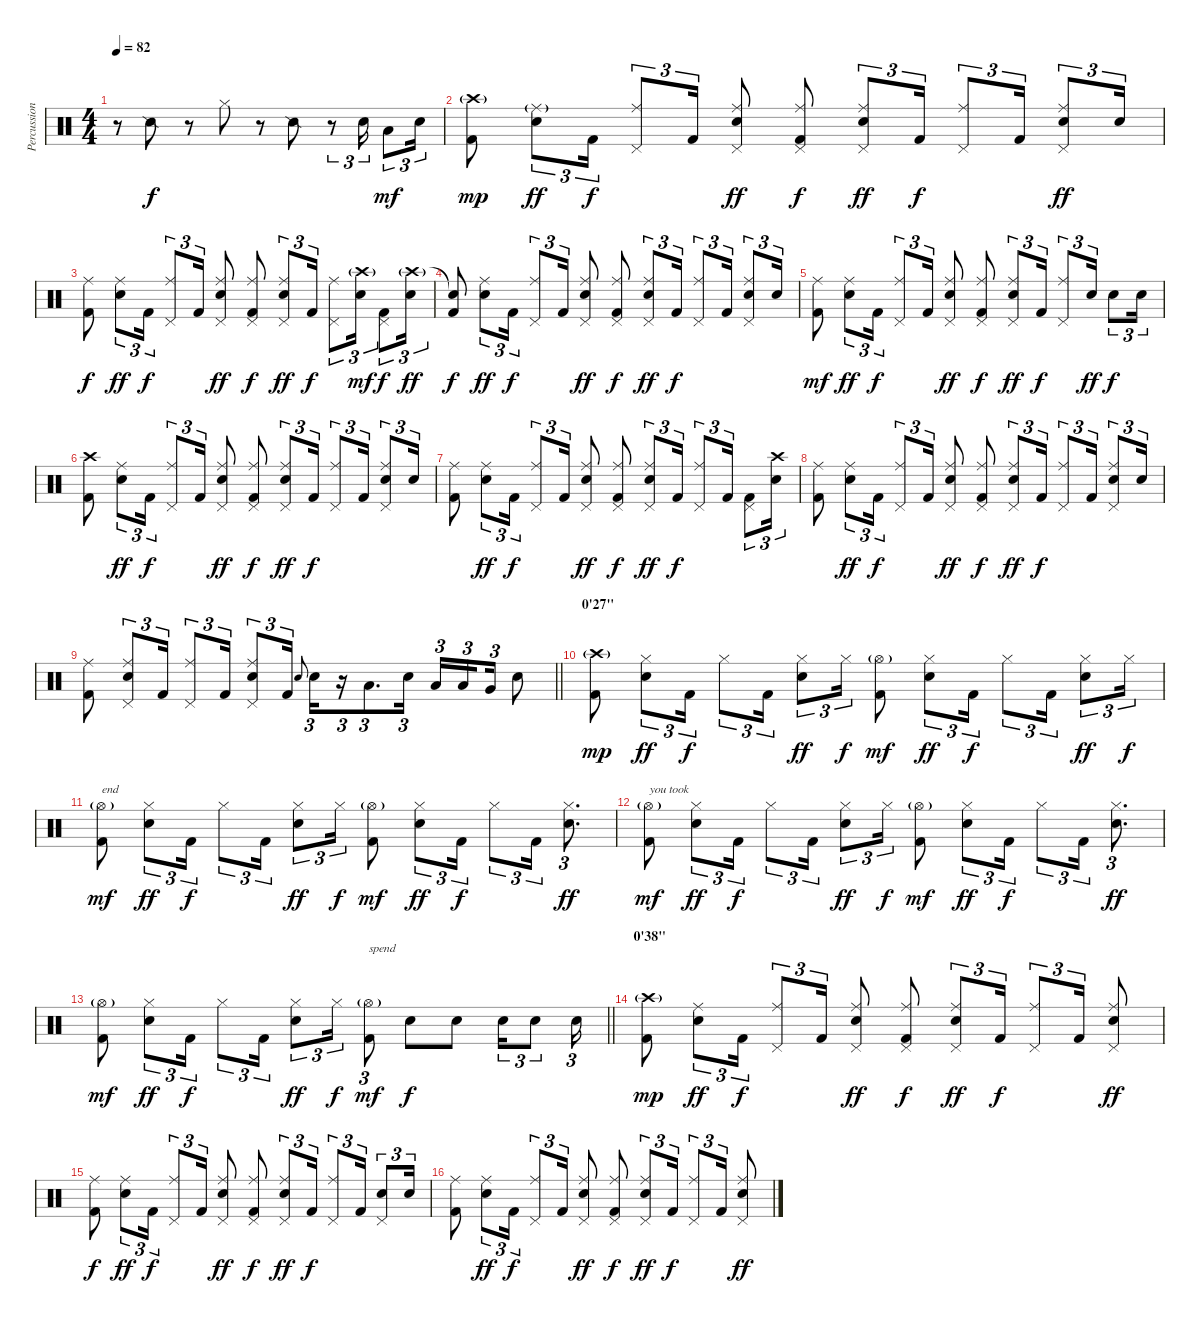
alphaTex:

\track ("Percussions" "Percussion") {instrument percussion}
\staff {score}
\articulation defaults
\ts (4 4)
\tempo 82
\clef neutral
\ks c
r.8{dy f} "Snare (side stick) 2".8 r.8 "Hi-Hat (closed)".8 r.8 "Snare (side stick) 2".8 r.8{tu (3 2)} "Electric Snare (hit)".16{tu (3 2)} "Low Tom (hit)".8{tu (3 2) dy mf} "Electric Snare (hit)".16{tu (3 2)} |
("Crash high (hit)"{g} "Kick (hit) 2").8{dy mp} ("Ride (middle)"{g} "Electric Snare (hit)").8{tu (3 2) dy ff} "Kick (hit) 2".16{tu (3 2) dy f} ("Ride (middle)" "Pedal Hi-Hat (hit)").8{tu (3 2)} "Kick (hit) 2".16{tu (3 2)} ("Ride (middle)" "Electric Snare (hit)" "Pedal Hi-Hat (hit)").8{dy ff} ("Ride (middle)" "Kick (hit) 2" "Pedal Hi-Hat (hit)").8{dy f} ("Ride (middle)" "Electric Snare (hit)" "Pedal Hi-Hat (hit)").8{tu (3 2) dy ff} "Kick (hit) 2".16{tu (3 2) dy f} ("Ride (middle)" "Pedal Hi-Hat (hit)").8{tu (3 2)} "Kick (hit) 2".16{tu (3 2)} ("Ride (middle)" "Electric Snare (hit)" "Pedal Hi-Hat (hit)").8{tu (3 2) dy ff} "Electric Snare (hit)".16{tu (3 2)} |
("Ride (middle)" "Kick (hit) 2").8{dy f} ("Ride (middle)" "Electric Snare (hit)").8{tu (3 2) dy ff} "Kick (hit) 2".16{tu (3 2) dy f} ("Ride (middle)" "Pedal Hi-Hat (hit)").8{tu (3 2)} "Kick (hit) 2".16{tu (3 2)} ("Ride (middle)" "Electric Snare (hit)" "Pedal Hi-Hat (hit)").8{dy ff} ("Ride (middle)" "Kick (hit) 2" "Pedal Hi-Hat (hit)").8{dy f} ("Ride (middle)" "Electric Snare (hit)" "Pedal Hi-Hat (hit)").8{tu (3 2) dy ff} "Kick (hit) 2".16{tu (3 2) dy f} ("Ride (middle)" "Pedal Hi-Hat (hit)").8{tu (3 2)} ("Crash high (hit)"{g} "Electric Snare (hit)").16{tu (3 2) dy mf} ("Kick (hit) 2" "Pedal Hi-Hat (hit)").8{tu (3 2) dy f} ("Crash high (hit)"{g} "Electric Snare (hit)").16{tu (3 2) dy ff} |
("Snare (hit)"{t} "Kick (hit) 2").8{dy f} ("Ride (middle)" "Electric Snare (hit)").8{tu (3 2) dy ff} "Kick (hit) 2".16{tu (3 2) dy f} ("Ride (middle)" "Pedal Hi-Hat (hit)").8{tu (3 2)} "Kick (hit) 2".16{tu (3 2)} ("Ride (middle)" "Electric Snare (hit)" "Pedal Hi-Hat (hit)").8{dy ff} ("Ride (middle)" "Kick (hit) 2" "Pedal Hi-Hat (hit)").8{dy f} ("Ride (middle)" "Electric Snare (hit)" "Pedal Hi-Hat (hit)").8{tu (3 2) dy ff} "Kick (hit) 2".16{tu (3 2) dy f} ("Ride (middle)" "Pedal Hi-Hat (hit)").8{tu (3 2)} "Kick (hit) 2".16{tu (3 2)} ("Ride (middle)" "Electric Snare (hit)" "Pedal Hi-Hat (hit)").8{tu (3 2)} "Electric Snare (hit)".16{tu (3 2)} |
("Ride (middle)" "Kick (hit) 2").8{dy mf} ("Ride (middle)" "Electric Snare (hit)").8{tu (3 2) dy ff} "Kick (hit) 2".16{tu (3 2) dy f} ("Ride (middle)" "Pedal Hi-Hat (hit)").8{tu (3 2)} "Kick (hit) 2".16{tu (3 2)} ("Ride (middle)" "Electric Snare (hit)" "Pedal Hi-Hat (hit)").8{dy ff} ("Ride (middle)" "Kick (hit) 2" "Pedal Hi-Hat (hit)").8{dy f} ("Ride (middle)" "Electric Snare (hit)" "Pedal Hi-Hat (hit)").8{tu (3 2) dy ff} "Kick (hit) 2".16{tu (3 2) dy f} ("Ride (middle)" "Pedal Hi-Hat (hit)").8{tu (3 2)} "Electric Snare (hit)".16{tu (3 2) dy ff} "Electric Snare (hit)".8{tu (3 2) dy f} "Electric Snare (hit)".16{tu (3 2)} |
("Crash high (hit)" "Kick (hit) 2").8 ("Ride (middle)" "Electric Snare (hit)").8{tu (3 2) dy ff} "Kick (hit) 2".16{tu (3 2) dy f} ("Ride (middle)" "Pedal Hi-Hat (hit)").8{tu (3 2)} "Kick (hit) 2".16{tu (3 2)} ("Ride (middle)" "Electric Snare (hit)" "Pedal Hi-Hat (hit)").8{dy ff} ("Ride (middle)" "Kick (hit) 2" "Pedal Hi-Hat (hit)").8{dy f} ("Ride (middle)" "Electric Snare (hit)" "Pedal Hi-Hat (hit)").8{tu (3 2) dy ff} "Kick (hit) 2".16{tu (3 2) dy f} ("Ride (middle)" "Pedal Hi-Hat (hit)").8{tu (3 2)} "Kick (hit) 2".16{tu (3 2)} ("Ride (middle)" "Electric Snare (hit)" "Pedal Hi-Hat (hit)").8{tu (3 2)} "Electric Snare (hit)".16{tu (3 2)} |
("Ride (middle)" "Kick (hit) 2").8 ("Ride (middle)" "Electric Snare (hit)").8{tu (3 2) dy ff} "Kick (hit) 2".16{tu (3 2) dy f} ("Ride (middle)" "Pedal Hi-Hat (hit)").8{tu (3 2)} "Kick (hit) 2".16{tu (3 2)} ("Ride (middle)" "Electric Snare (hit)" "Pedal Hi-Hat (hit)").8{dy ff} ("Ride (middle)" "Kick (hit) 2" "Pedal Hi-Hat (hit)").8{dy f} ("Ride (middle)" "Electric Snare (hit)" "Pedal Hi-Hat (hit)").8{tu (3 2) dy ff} "Kick (hit) 2".16{tu (3 2) dy f} ("Ride (middle)" "Pedal Hi-Hat (hit)").8{tu (3 2)} "Kick (hit) 2".16{tu (3 2)} ("Kick (hit) 2" "Pedal Hi-Hat (hit)").8{tu (3 2)} ("Crash high (hit)" "Electric Snare (hit)").16{tu (3 2)} |
("Ride (middle)" "Kick (hit) 2").8 ("Ride (middle)" "Electric Snare (hit)").8{tu (3 2) dy ff} "Kick (hit) 2".16{tu (3 2) dy f} ("Ride (middle)" "Pedal Hi-Hat (hit)").8{tu (3 2)} "Kick (hit) 2".16{tu (3 2)} ("Ride (middle)" "Electric Snare (hit)" "Pedal Hi-Hat (hit)").8{dy ff} ("Ride (middle)" "Kick (hit) 2" "Pedal Hi-Hat (hit)").8{dy f} ("Ride (middle)" "Electric Snare (hit)" "Pedal Hi-Hat (hit)").8{tu (3 2) dy ff} "Kick (hit) 2".16{tu (3 2) dy f} ("Ride (middle)" "Pedal Hi-Hat (hit)").8{tu (3 2)} "Kick (hit) 2".16{tu (3 2)} ("Ride (middle)" "Electric Snare (hit)" "Pedal Hi-Hat (hit)").8{tu (3 2)} "Electric Snare (hit)".16{tu (3 2)} |
\barLineRight lightlight
("Ride (middle)" "Kick (hit) 2").8 ("Ride (middle)" "Electric Snare (hit)" "Pedal Hi-Hat (hit)").8{tu (3 2)} "Kick (hit) 2".16{tu (3 2)} ("Ride (middle)" "Pedal Hi-Hat (hit)").8{tu (3 2)} "Kick (hit) 2".16{tu (3 2)} ("Ride (middle)" "Electric Snare (hit)" "Pedal Hi-Hat (hit)").8{tu (3 2)} "Kick (hit) 2".16{tu (3 2)} "Electric Snare (hit)".8{gr onbeat} "Electric Snare (hit)".16{tu (3 2)} r.16{tu (3 2)} "Low Tom (hit)".8{d tu (3 2)} "Electric Snare (hit)".16{tu (3 2)} "Low Tom (hit)".16{tu (3 2)} "Low Tom (hit)".16{tu (3 2) beam splitsecondary} "Very Low Tom (hit)".16{tu (3 2)} "Electric Snare (hit)".8 |
\section ("" "0'27\"")
("Crash high (hit)"{g} "Kick (hit) 2").8{dy mp} ("Hi-Hat (closed)" "Electric Snare (hit)").8{tu (3 2) dy ff} "Kick (hit) 2".16{tu (3 2) dy f} "Hi-Hat (closed)".8{tu (3 2)} "Kick (hit) 2".16{tu (3 2)} ("Hi-Hat (closed)" "Electric Snare (hit)").8{tu (3 2) dy ff} "Hi-Hat (closed)".16{tu (3 2) dy f} ("Hi-Hat (open)"{g} "Kick (hit) 2").8{dy mf} ("Hi-Hat (closed)" "Electric Snare (hit)").8{tu (3 2) dy ff} "Kick (hit) 2".16{tu (3 2) dy f} "Hi-Hat (closed)".8{tu (3 2)} "Kick (hit) 2".16{tu (3 2)} ("Hi-Hat (closed)" "Electric Snare (hit)").8{tu (3 2) dy ff} "Hi-Hat (closed)".16{tu (3 2) dy f} |
("Hi-Hat (open)"{g} "Kick (hit) 2").8{txt "end" dy mf} ("Hi-Hat (closed)" "Electric Snare (hit)").8{tu (3 2) dy ff} "Kick (hit) 2".16{tu (3 2) dy f} "Hi-Hat (closed)".8{tu (3 2)} "Kick (hit) 2".16{tu (3 2)} ("Hi-Hat (closed)" "Electric Snare (hit)").8{tu (3 2) dy ff} "Hi-Hat (closed)".16{tu (3 2) dy f} ("Hi-Hat (open)"{g} "Kick (hit) 2").8{dy mf} ("Hi-Hat (closed)" "Electric Snare (hit)").8{tu (3 2) dy ff} "Kick (hit) 2".16{tu (3 2) dy f} "Hi-Hat (closed)".8{tu (3 2)} "Kick (hit) 2".16{tu (3 2)} ("Hi-Hat (closed)" "Electric Snare (hit)").8{d tu (3 2) dy ff} |
("Hi-Hat (open)"{g} "Kick (hit) 2").8{txt "you took" dy mf} ("Hi-Hat (closed)" "Electric Snare (hit)").8{tu (3 2) dy ff} "Kick (hit) 2".16{tu (3 2) dy f} "Hi-Hat (closed)".8{tu (3 2)} "Kick (hit) 2".16{tu (3 2)} ("Hi-Hat (closed)" "Electric Snare (hit)").8{tu (3 2) dy ff} "Hi-Hat (closed)".16{tu (3 2) dy f} ("Hi-Hat (open)"{g} "Kick (hit) 2").8{dy mf} ("Hi-Hat (closed)" "Electric Snare (hit)").8{tu (3 2) dy ff} "Kick (hit) 2".16{tu (3 2) dy f} "Hi-Hat (closed)".8{tu (3 2)} "Kick (hit) 2".16{tu (3 2)} ("Hi-Hat (closed)" "Electric Snare (hit)").8{d tu (3 2) dy ff} |
\barLineRight lightlight
("Hi-Hat (open)"{g} "Kick (hit) 2").8{dy mf} ("Hi-Hat (closed)" "Electric Snare (hit)").8{tu (3 2) dy ff} "Kick (hit) 2".16{tu (3 2) dy f} "Hi-Hat (closed)".8{tu (3 2)} "Kick (hit) 2".16{tu (3 2)} ("Hi-Hat (closed)" "Electric Snare (hit)").8{tu (3 2) dy ff} "Hi-Hat (closed)".16{tu (3 2) dy f} ("Hi-Hat (open)"{g} "Kick (hit) 2").8{tu (3 2) txt "spend" dy mf} "Electric Snare (hit)".8{dy f} "Electric Snare (hit)".8 "Electric Snare (hit)".16{tu (3 2)} "Electric Snare (hit)".8{tu (3 2)} "Electric Snare (hit)".16{tu (3 2)} |
\section ("" "0'38\"")
("Crash high (hit)"{g} "Kick (hit) 2").8{dy mp} ("Ride (middle)" "Electric Snare (hit)").8{tu (3 2) dy ff} "Kick (hit) 2".16{tu (3 2) dy f} ("Ride (middle)" "Pedal Hi-Hat (hit)").8{tu (3 2)} "Kick (hit) 2".16{tu (3 2)} ("Ride (middle)" "Electric Snare (hit)" "Pedal Hi-Hat (hit)").8{dy ff} ("Ride (middle)" "Kick (hit) 2" "Pedal Hi-Hat (hit)").8{dy f} ("Ride (middle)" "Electric Snare (hit)" "Pedal Hi-Hat (hit)").8{tu (3 2) dy ff} "Kick (hit) 2".16{tu (3 2) dy f} ("Ride (middle)" "Pedal Hi-Hat (hit)").8{tu (3 2)} "Kick (hit) 2".16{tu (3 2)} ("Ride (middle)" "Electric Snare (hit)" "Pedal Hi-Hat (hit)").8{dy ff} |
("Ride (middle)" "Kick (hit) 2").8{dy f} ("Ride (middle)" "Electric Snare (hit)").8{tu (3 2) dy ff} "Kick (hit) 2".16{tu (3 2) dy f} ("Ride (middle)" "Pedal Hi-Hat (hit)").8{tu (3 2)} "Kick (hit) 2".16{tu (3 2)} ("Ride (middle)" "Electric Snare (hit)" "Pedal Hi-Hat (hit)").8{dy ff} ("Ride (middle)" "Kick (hit) 2" "Pedal Hi-Hat (hit)").8{dy f} ("Ride (middle)" "Electric Snare (hit)" "Pedal Hi-Hat (hit)").8{tu (3 2) dy ff} "Kick (hit) 2".16{tu (3 2) dy f} ("Ride (middle)" "Pedal Hi-Hat (hit)").8{tu (3 2)} "Kick (hit) 2".16{tu (3 2)} ("Electric Snare (hit)" "Pedal Hi-Hat (hit)").8{tu (3 2)} "Electric Snare (hit)".16{tu (3 2)} |
("Ride (middle)" "Kick (hit) 2").8 ("Ride (middle)" "Electric Snare (hit)").8{tu (3 2) dy ff} "Kick (hit) 2".16{tu (3 2) dy f} ("Ride (middle)" "Pedal Hi-Hat (hit)").8{tu (3 2)} "Kick (hit) 2".16{tu (3 2)} ("Ride (middle)" "Electric Snare (hit)" "Pedal Hi-Hat (hit)").8{dy ff} ("Ride (middle)" "Kick (hit) 2" "Pedal Hi-Hat (hit)").8{dy f} ("Ride (middle)" "Electric Snare (hit)" "Pedal Hi-Hat (hit)").8{tu (3 2) dy ff} "Kick (hit) 2".16{tu (3 2) dy f} ("Ride (middle)" "Pedal Hi-Hat (hit)").8{tu (3 2)} "Kick (hit) 2".16{tu (3 2)} ("Ride (middle)" "Electric Snare (hit)" "Pedal Hi-Hat (hit)").8{dy ff}
